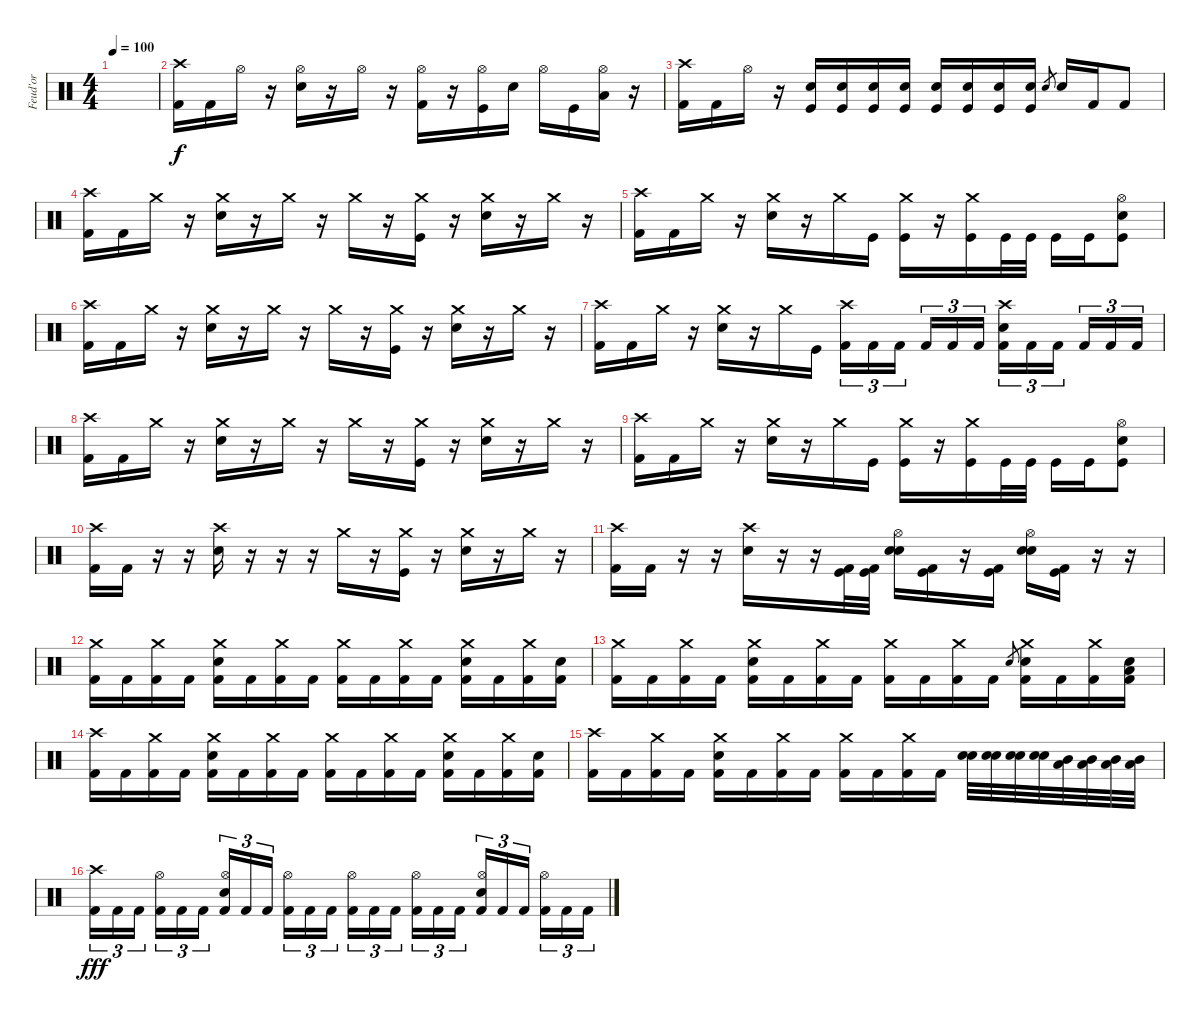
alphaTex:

\track ("Feud'or" "Feud'or") {instrument percussion}
\staff {score}
\articulation defaults
\ts (4 4)
\tempo 100
\clef neutral
\ks c
|
("Crash high (hit)" "Kick (hit) 2").16 "Kick (hit) 2".16 "Hi-Hat (open)".16 r.16 ("Hi-Hat (open)" "Snare (hit) 2").16 r.16 "Hi-Hat (open)".16 r.16 ("Hi-Hat (open)" "Kick (hit) 2").16 r.16 ("Hi-Hat (open)" "Kick (hit)").16 "Snare (hit) 2".16 "Hi-Hat (open)".16 "Kick (hit)".16 ("Hi-Hat (open)" "Low Floor Tom (hit)").16 r.16 |
("Crash high (hit)" "Kick (hit) 2").16 "Kick (hit) 2".16 "Hi-Hat (open)".16 r.16 ("Snare (hit) 2" "Kick (hit)").16 ("Snare (hit) 2" "Kick (hit)").16 ("Snare (hit) 2" "Kick (hit)").16 ("Snare (hit) 2" "Kick (hit)").16 ("Snare (hit) 2" "Kick (hit)").16 ("Snare (hit) 2" "Kick (hit)").16 ("Snare (hit) 2" "Kick (hit)").16 ("Snare (hit) 2" "Kick (hit)").16 "Snare (hit) 2".8{gr} "Snare (hit) 2".16 "Kick (hit) 2".16 "Kick (hit) 2".8 |
("Crash high (hit)" "Kick (hit) 2").16 "Kick (hit) 2".16 "Crash medium (hit)".16 r.16 ("Crash medium (hit)" "Snare (hit) 2").16 r.16 "Crash medium (hit)".16 r.16 "Crash medium (hit)".16 r.16 ("Crash medium (hit)" "Kick (hit)").16 r.16 ("Crash medium (hit)" "Snare (hit) 2").16 r.16 "Crash medium (hit)".16 r.16 |
("Crash high (hit)" "Kick (hit) 2").16 "Kick (hit) 2".16 "Crash medium (hit)".16 r.16 ("Crash medium (hit)" "Snare (hit) 2").16 r.16 "Crash medium (hit)".16 "Kick (hit)".16 ("Crash medium (hit)" "Kick (hit)").16 r.16 ("Crash medium (hit)" "Kick (hit)").16 "Kick (hit)".32 "Kick (hit)".32 "Kick (hit)".16 "Kick (hit)".16 ("Hi-Hat (open)" "Snare (hit) 2" "Kick (hit)").8 |
("Crash high (hit)" "Kick (hit) 2").16 "Kick (hit) 2".16 "Crash medium (hit)".16 r.16 ("Crash medium (hit)" "Snare (hit) 2").16 r.16 "Crash medium (hit)".16 r.16 "Crash medium (hit)".16 r.16 ("Crash medium (hit)" "Kick (hit)").16 r.16 ("Crash medium (hit)" "Snare (hit) 2").16 r.16 "Crash medium (hit)".16 r.16 |
("Crash high (hit)" "Kick (hit) 2").16 "Kick (hit) 2".16 "Crash medium (hit)".16 r.16 ("Crash medium (hit)" "Snare (hit) 2").16 r.16 "Crash medium (hit)".16 "Kick (hit)".16 ("Crash high (hit)" "Kick (hit) 2").16{tu (3 2)} "Kick (hit) 2".16{tu (3 2)} "Kick (hit) 2".16{tu (3 2) beam splitsecondary} "Kick (hit) 2".16{tu (3 2)} "Kick (hit) 2".16{tu (3 2)} "Kick (hit) 2".16{tu (3 2)} ("Crash high (hit)" "Snare (hit) 2" "Kick (hit) 2").16{tu (3 2)} "Kick (hit) 2".16{tu (3 2)} "Kick (hit) 2".16{tu (3 2) beam splitsecondary} "Kick (hit) 2".16{tu (3 2)} "Kick (hit) 2".16{tu (3 2)} "Kick (hit) 2".16{tu (3 2)} |
("Crash high (hit)" "Kick (hit) 2").16 "Kick (hit) 2".16 "Crash medium (hit)".16 r.16 ("Crash medium (hit)" "Snare (hit) 2").16 r.16 "Crash medium (hit)".16 r.16 "Crash medium (hit)".16 r.16 ("Crash medium (hit)" "Kick (hit)").16 r.16 ("Crash medium (hit)" "Snare (hit) 2").16 r.16 "Crash medium (hit)".16 r.16 |
("Crash high (hit)" "Kick (hit) 2").16 "Kick (hit) 2".16 "Crash medium (hit)".16 r.16 ("Crash medium (hit)" "Snare (hit) 2").16 r.16 "Crash medium (hit)".16 "Kick (hit)".16 ("Crash medium (hit)" "Kick (hit)").16 r.16 ("Crash medium (hit)" "Kick (hit)").16 "Kick (hit)".32 "Kick (hit)".32 "Kick (hit)".16 "Kick (hit)".16 ("Hi-Hat (open)" "Snare (hit) 2" "Kick (hit)").8 |
("Crash high (hit)" "Kick (hit) 2").16 "Kick (hit) 2".16 r.16 r.16 ("Crash high (hit)" "Snare (hit) 2").16 r.16 r.16 r.16 "Crash medium (hit)".16 r.16 ("Crash medium (hit)" "Kick (hit)").16 r.16 ("Crash medium (hit)" "Snare (hit) 2").16 r.16 "Crash medium (hit)".16 r.16 |
("Crash high (hit)" "Kick (hit) 2").16 "Kick (hit) 2".16 r.16 r.16 ("Crash high (hit)" "Snare (hit) 2").16 r.16 r.16 ("Kick (hit) 2" "Kick (hit)").32 ("Kick (hit) 2" "Kick (hit)").32 ("Hi-Hat (open)" "Electric Snare (hit)" "Snare (hit) 2").16 ("Kick (hit)" "Kick (hit) 2").16 r.16 ("Kick (hit)" "Kick (hit) 2").16 ("Hi-Hat (open)" "Electric Snare (hit)" "Snare (hit) 2").16 ("Kick (hit)" "Kick (hit) 2").16 r.16 r.16 |
("Crash medium (hit)" "Kick (hit) 2").16 "Kick (hit) 2".16 ("Crash medium (hit)" "Kick (hit) 2").16 "Kick (hit) 2".16 ("Crash medium (hit)" "Snare (hit) 2" "Kick (hit) 2").16 "Kick (hit) 2".16 ("Crash medium (hit)" "Kick (hit) 2").16 "Kick (hit) 2".16 ("Crash medium (hit)" "Kick (hit) 2").16 "Kick (hit) 2".16 ("Crash medium (hit)" "Kick (hit) 2").16 "Kick (hit) 2".16 ("Crash medium (hit)" "Snare (hit) 2" "Kick (hit) 2").16 "Kick (hit) 2".16 ("Crash medium (hit)" "Kick (hit) 2").16 ("Snare (hit) 2" "Kick (hit) 2").16 |
("Crash medium (hit)" "Kick (hit) 2").16 "Kick (hit) 2".16 ("Crash medium (hit)" "Kick (hit) 2").16 "Kick (hit) 2".16 ("Crash medium (hit)" "Snare (hit) 2" "Kick (hit) 2").16 "Kick (hit) 2".16 ("Crash medium (hit)" "Kick (hit) 2").16 "Kick (hit) 2".16 ("Crash medium (hit)" "Kick (hit) 2").16 "Kick (hit) 2".16 ("Crash medium (hit)" "Kick (hit) 2").16 "Kick (hit) 2".16 "Snare (hit) 2".8{gr} ("Crash medium (hit)" "Snare (hit) 2" "Kick (hit) 2").16 "Kick (hit) 2".16 ("Crash medium (hit)" "Kick (hit) 2").16 ("Low Floor Tom (hit)" "Snare (hit) 2" "Kick (hit) 2").16 |
("Crash high (hit)" "Kick (hit) 2").16 "Kick (hit) 2".16 ("Crash medium (hit)" "Kick (hit) 2").16 "Kick (hit) 2".16 ("Crash medium (hit)" "Snare (hit) 2" "Kick (hit) 2").16 "Kick (hit) 2".16 ("Crash medium (hit)" "Kick (hit) 2").16 "Kick (hit) 2".16 ("Crash medium (hit)" "Kick (hit) 2").16 "Kick (hit) 2".16 ("Crash medium (hit)" "Kick (hit) 2").16 "Kick (hit) 2".16 ("Crash medium (hit)" "Snare (hit) 2" "Kick (hit) 2").16 "Kick (hit) 2".16 ("Crash medium (hit)" "Kick (hit) 2").16 ("Snare (hit) 2" "Kick (hit) 2").16 |
("Crash high (hit)" "Kick (hit) 2").16 "Kick (hit) 2".16 ("Crash medium (hit)" "Kick (hit) 2").16 "Kick (hit) 2".16 ("Crash medium (hit)" "Snare (hit) 2" "Kick (hit) 2").16 "Kick (hit) 2".16 ("Crash medium (hit)" "Kick (hit) 2").16 "Kick (hit) 2".16 ("Crash medium (hit)" "Kick (hit) 2").16 "Kick (hit) 2".16 ("Crash medium (hit)" "Kick (hit) 2").16 "Kick (hit) 2".16 ("Electric Snare (hit)" "Snare (hit) 2").32 ("Electric Snare (hit)" "Snare (hit) 2").32 ("Electric Snare (hit)" "Snare (hit) 2").32 ("Electric Snare (hit)" "Snare (hit) 2").32 ("Mid Tom (hit)" "Low Tom (hit)").32{dy f} ("Mid Tom (hit)" "Low Tom (hit)").32 ("Mid Tom (hit)" "Low Tom (hit)").32 ("Mid Tom (hit)" "Low Tom (hit)").32 |
("Crash high (hit)" "Kick (hit) 2").16{tu (3 2) dy fff} "Kick (hit) 2".16{tu (3 2)} "Kick (hit) 2".16{tu (3 2) beam splitsecondary} ("Hi-Hat (open)" "Kick (hit) 2").16{tu (3 2)} "Kick (hit) 2".16{tu (3 2)} "Kick (hit) 2".16{tu (3 2)} ("Hi-Hat (open)" "Snare (hit) 2" "Kick (hit) 2").16{tu (3 2)} "Kick (hit) 2".16{tu (3 2)} "Kick (hit) 2".16{tu (3 2) beam splitsecondary} ("Hi-Hat (open)" "Kick (hit) 2").16{tu (3 2)} "Kick (hit) 2".16{tu (3 2)} "Kick (hit) 2".16{tu (3 2)} ("Hi-Hat (open)" "Kick (hit) 2").16{tu (3 2)} "Kick (hit) 2".16{tu (3 2)} "Kick (hit) 2".16{tu (3 2) beam splitsecondary} ("Hi-Hat (open)" "Kick (hit) 2").16{tu (3 2)} "Kick (hit) 2".16{tu (3 2)} "Kick (hit) 2".16{tu (3 2)} ("Hi-Hat (open)" "Snare (hit) 2" "Kick (hit) 2").16{tu (3 2)} "Kick (hit) 2".16{tu (3 2)} "Kick (hit) 2".16{tu (3 2) beam splitsecondary} ("Hi-Hat (open)" "Kick (hit) 2").16{tu (3 2)} "Kick (hit) 2".16{tu (3 2)} "Kick (hit) 2".16{tu (3 2)}
